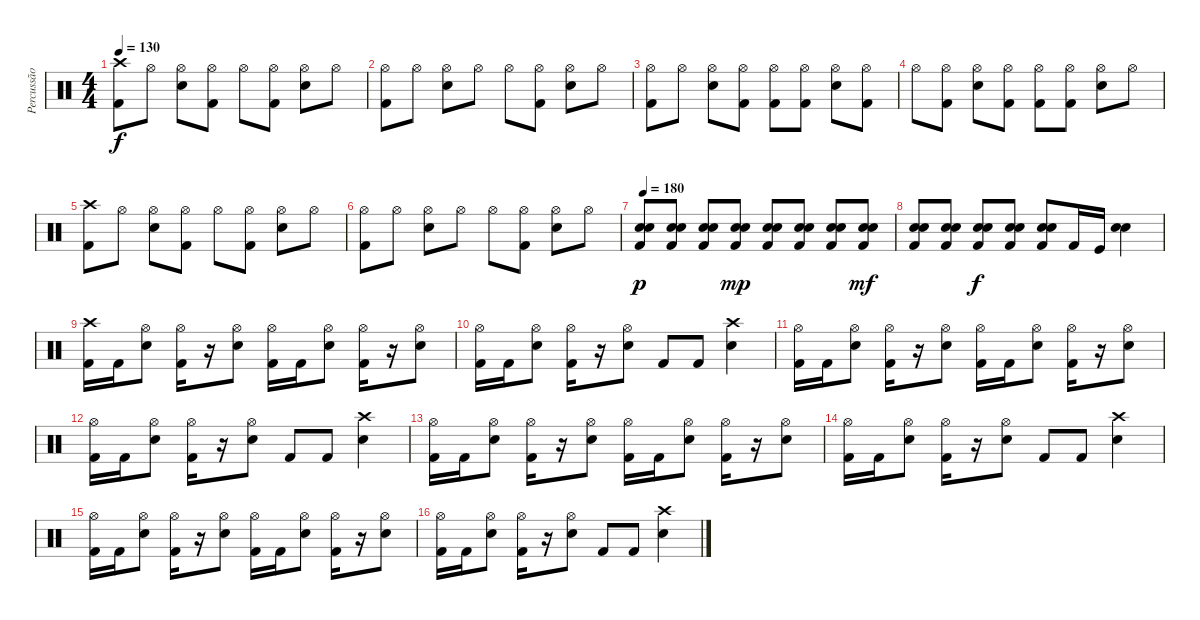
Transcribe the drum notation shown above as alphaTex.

\track ("Percussão" "Percussão") {instrument percussion}
\staff {score}
\articulation defaults
\ts (4 4)
\tempo 130
\clef neutral
\ks c
("Crash high (hit)" "Kick (hit) 2").8{dy f} "Hi-Hat (open)".8 ("Hi-Hat (open)" "Electric Snare (hit)").8 ("Hi-Hat (open)" "Kick (hit) 2").8 "Hi-Hat (open)".8 ("Hi-Hat (open)" "Kick (hit) 2").8 ("Hi-Hat (open)" "Electric Snare (hit)").8 "Hi-Hat (open)".8 |
("Hi-Hat (open)" "Kick (hit) 2").8 "Hi-Hat (open)".8 ("Hi-Hat (open)" "Electric Snare (hit)").8 "Hi-Hat (open)".8 "Hi-Hat (open)".8 ("Hi-Hat (open)" "Kick (hit) 2").8 ("Hi-Hat (open)" "Electric Snare (hit)").8 "Hi-Hat (open)".8 |
("Hi-Hat (open)" "Kick (hit) 2").8 "Hi-Hat (open)".8 ("Hi-Hat (open)" "Electric Snare (hit)").8 ("Hi-Hat (open)" "Kick (hit) 2").8 ("Hi-Hat (open)" "Kick (hit) 2").8 ("Hi-Hat (open)" "Kick (hit) 2").8 ("Hi-Hat (open)" "Electric Snare (hit)").8 ("Hi-Hat (open)" "Kick (hit) 2").8 |
"Hi-Hat (open)".8 ("Hi-Hat (open)" "Kick (hit) 2").8 ("Hi-Hat (open)" "Electric Snare (hit)").8 ("Hi-Hat (open)" "Kick (hit) 2").8 ("Hi-Hat (open)" "Kick (hit) 2").8 ("Hi-Hat (open)" "Kick (hit) 2").8 ("Hi-Hat (open)" "Electric Snare (hit)").8 "Hi-Hat (open)".8 |
("Crash high (hit)" "Kick (hit) 2").8 "Hi-Hat (open)".8 ("Hi-Hat (open)" "Electric Snare (hit)").8 ("Hi-Hat (open)" "Kick (hit) 2").8 "Hi-Hat (open)".8 ("Hi-Hat (open)" "Kick (hit) 2").8 ("Hi-Hat (open)" "Electric Snare (hit)").8 "Hi-Hat (open)".8 |
("Hi-Hat (open)" "Kick (hit) 2").8 "Hi-Hat (open)".8 ("Hi-Hat (open)" "Electric Snare (hit)").8 "Hi-Hat (open)".8 "Hi-Hat (open)".8 ("Hi-Hat (open)" "Kick (hit) 2").8 ("Hi-Hat (open)" "Electric Snare (hit)").8 "Hi-Hat (open)".8 |
\tempo 180
("Electric Snare (hit)" "Electric Snare (hit)" "Kick (hit) 2").8{dy p} ("Electric Snare (hit)" "Electric Snare (hit)" "Kick (hit) 2").8 ("Electric Snare (hit)" "Electric Snare (hit)" "Kick (hit) 2").8 ("Electric Snare (hit)" "Electric Snare (hit)" "Kick (hit) 2").8{dy mp} ("Electric Snare (hit)" "Electric Snare (hit)" "Kick (hit) 2").8 ("Electric Snare (hit)" "Electric Snare (hit)" "Kick (hit) 2").8 ("Electric Snare (hit)" "Electric Snare (hit)" "Kick (hit) 2").8 ("Electric Snare (hit)" "Electric Snare (hit)" "Kick (hit) 2").8{dy mf} |
("Electric Snare (hit)" "Electric Snare (hit)" "Kick (hit) 2").8 ("Electric Snare (hit)" "Electric Snare (hit)" "Kick (hit) 2").8 ("Electric Snare (hit)" "Electric Snare (hit)" "Kick (hit) 2").8{dy f} ("Electric Snare (hit)" "Electric Snare (hit)" "Kick (hit) 2").8 ("Electric Snare (hit)" "Electric Snare (hit)" "Kick (hit) 2").8 "Kick (hit) 2".16 "Kick (hit)".16 ("Electric Snare (hit)" "Electric Snare (hit)").4 |
("Crash high (hit)" "Kick (hit) 2").16 "Kick (hit) 2".16 ("Hi-Hat (open)" "Electric Snare (hit)").8 ("Hi-Hat (open)" "Kick (hit) 2").16 r.16 ("Hi-Hat (open)" "Electric Snare (hit)").8 ("Hi-Hat (open)" "Kick (hit) 2").16 "Kick (hit) 2".16 ("Hi-Hat (open)" "Electric Snare (hit)").8 ("Hi-Hat (open)" "Kick (hit) 2").16 r.16 ("Hi-Hat (open)" "Electric Snare (hit)").8 |
("Hi-Hat (open)" "Kick (hit) 2").16 "Kick (hit) 2".16 ("Hi-Hat (open)" "Electric Snare (hit)").8 ("Hi-Hat (open)" "Kick (hit) 2").16 r.16 ("Hi-Hat (open)" "Electric Snare (hit)").8 "Kick (hit) 2".8 "Kick (hit) 2".8 ("Crash high (hit)" "Electric Snare (hit)").4 |
("Hi-Hat (open)" "Kick (hit) 2").16 "Kick (hit) 2".16 ("Hi-Hat (open)" "Electric Snare (hit)").8 ("Hi-Hat (open)" "Kick (hit) 2").16 r.16 ("Hi-Hat (open)" "Electric Snare (hit)").8 ("Hi-Hat (open)" "Kick (hit) 2").16 "Kick (hit) 2".16 ("Hi-Hat (open)" "Electric Snare (hit)").8 ("Hi-Hat (open)" "Kick (hit) 2").16 r.16 ("Hi-Hat (open)" "Electric Snare (hit)").8 |
("Hi-Hat (open)" "Kick (hit) 2").16 "Kick (hit) 2".16 ("Hi-Hat (open)" "Electric Snare (hit)").8 ("Hi-Hat (open)" "Kick (hit) 2").16 r.16 ("Hi-Hat (open)" "Electric Snare (hit)").8 "Kick (hit) 2".8 "Kick (hit) 2".8 ("Crash high (hit)" "Electric Snare (hit)").4 |
("Hi-Hat (open)" "Kick (hit) 2").16 "Kick (hit) 2".16 ("Hi-Hat (open)" "Electric Snare (hit)").8 ("Hi-Hat (open)" "Kick (hit) 2").16 r.16 ("Hi-Hat (open)" "Electric Snare (hit)").8 ("Hi-Hat (open)" "Kick (hit) 2").16 "Kick (hit) 2".16 ("Hi-Hat (open)" "Electric Snare (hit)").8 ("Hi-Hat (open)" "Kick (hit) 2").16 r.16 ("Hi-Hat (open)" "Electric Snare (hit)").8 |
("Hi-Hat (open)" "Kick (hit) 2").16 "Kick (hit) 2".16 ("Hi-Hat (open)" "Electric Snare (hit)").8 ("Hi-Hat (open)" "Kick (hit) 2").16 r.16 ("Hi-Hat (open)" "Electric Snare (hit)").8 "Kick (hit) 2".8 "Kick (hit) 2".8 ("Crash high (hit)" "Electric Snare (hit)").4 |
("Hi-Hat (open)" "Kick (hit) 2").16 "Kick (hit) 2".16 ("Hi-Hat (open)" "Electric Snare (hit)").8 ("Hi-Hat (open)" "Kick (hit) 2").16 r.16 ("Hi-Hat (open)" "Electric Snare (hit)").8 ("Hi-Hat (open)" "Kick (hit) 2").16 "Kick (hit) 2".16 ("Hi-Hat (open)" "Electric Snare (hit)").8 ("Hi-Hat (open)" "Kick (hit) 2").16 r.16 ("Hi-Hat (open)" "Electric Snare (hit)").8 |
("Hi-Hat (open)" "Kick (hit) 2").16 "Kick (hit) 2".16 ("Hi-Hat (open)" "Electric Snare (hit)").8 ("Hi-Hat (open)" "Kick (hit) 2").16 r.16 ("Hi-Hat (open)" "Electric Snare (hit)").8 "Kick (hit) 2".8 "Kick (hit) 2".8 ("Crash high (hit)" "Electric Snare (hit)").4
